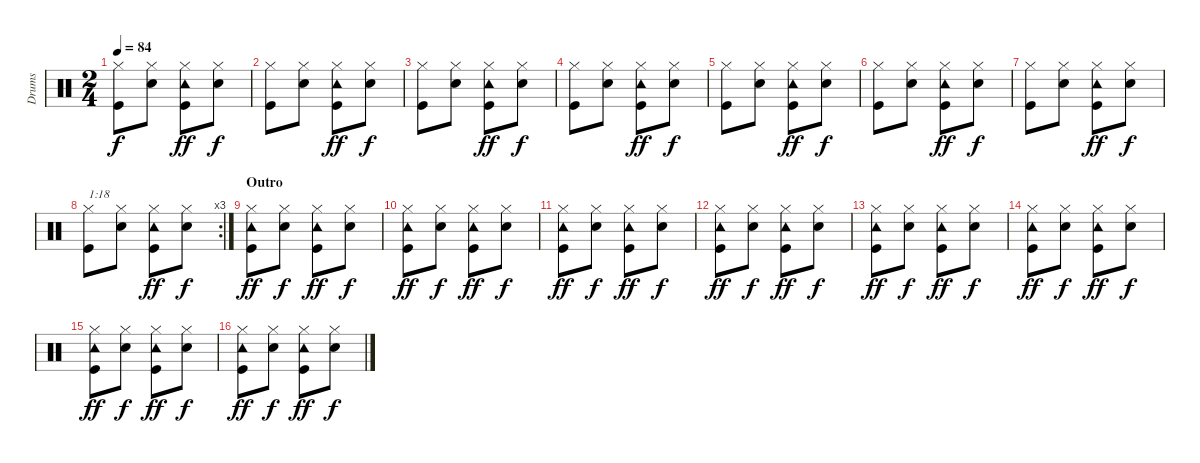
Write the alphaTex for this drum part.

\track ("Drums" "Drums") {instrument percussion}
\staff {score}
\articulation defaults
\ts (2 4)
\tempo 84
\clef neutral
\ks c
("Hi-Hat (closed)" "Kick (hit)").8{dy f} ("Hi-Hat (closed)" "Electric Snare (hit)").8 ("Tambourine (hit)" "Hi-Hat (closed)" "Kick (hit)").8{dy ff} ("Hi-Hat (closed)" "Electric Snare (hit)").8{dy f} |
("Hi-Hat (closed)" "Kick (hit)").8 ("Hi-Hat (closed)" "Electric Snare (hit)").8 ("Tambourine (hit)" "Hi-Hat (closed)" "Kick (hit)").8{dy ff} ("Hi-Hat (closed)" "Electric Snare (hit)").8{dy f} |
("Hi-Hat (closed)" "Kick (hit)").8 ("Hi-Hat (closed)" "Electric Snare (hit)").8 ("Tambourine (hit)" "Hi-Hat (closed)" "Kick (hit)").8{dy ff} ("Hi-Hat (closed)" "Electric Snare (hit)").8{dy f} |
("Hi-Hat (closed)" "Kick (hit)").8 ("Hi-Hat (closed)" "Electric Snare (hit)").8 ("Tambourine (hit)" "Hi-Hat (closed)" "Kick (hit)").8{dy ff} ("Hi-Hat (closed)" "Electric Snare (hit)").8{dy f} |
("Hi-Hat (closed)" "Kick (hit)").8 ("Hi-Hat (closed)" "Electric Snare (hit)").8 ("Tambourine (hit)" "Hi-Hat (closed)" "Kick (hit)").8{dy ff} ("Hi-Hat (closed)" "Electric Snare (hit)").8{dy f} |
("Hi-Hat (closed)" "Kick (hit)").8 ("Hi-Hat (closed)" "Electric Snare (hit)").8 ("Tambourine (hit)" "Hi-Hat (closed)" "Kick (hit)").8{dy ff} ("Hi-Hat (closed)" "Electric Snare (hit)").8{dy f} |
("Hi-Hat (closed)" "Kick (hit)").8 ("Hi-Hat (closed)" "Electric Snare (hit)").8 ("Tambourine (hit)" "Hi-Hat (closed)" "Kick (hit)").8{dy ff} ("Hi-Hat (closed)" "Electric Snare (hit)").8{dy f} |
\rc 3
("Hi-Hat (closed)" "Kick (hit)").8{txt "1:18"} ("Hi-Hat (closed)" "Electric Snare (hit)").8 ("Tambourine (hit)" "Hi-Hat (closed)" "Kick (hit)").8{dy ff} ("Hi-Hat (closed)" "Electric Snare (hit)").8{dy f} |
\section ("" "Outro")
("Tambourine (hit)" "Hi-Hat (closed)" "Kick (hit)").8{dy ff} ("Hi-Hat (closed)" "Electric Snare (hit)").8{dy f} ("Tambourine (hit)" "Hi-Hat (closed)" "Kick (hit)").8{dy ff} ("Hi-Hat (closed)" "Electric Snare (hit)").8{dy f} |
("Tambourine (hit)" "Hi-Hat (closed)" "Kick (hit)").8{dy ff} ("Hi-Hat (closed)" "Electric Snare (hit)").8{dy f} ("Tambourine (hit)" "Hi-Hat (closed)" "Kick (hit)").8{dy ff} ("Hi-Hat (closed)" "Electric Snare (hit)").8{dy f} |
("Tambourine (hit)" "Hi-Hat (closed)" "Kick (hit)").8{dy ff} ("Hi-Hat (closed)" "Electric Snare (hit)").8{dy f} ("Tambourine (hit)" "Hi-Hat (closed)" "Kick (hit)").8{dy ff} ("Hi-Hat (closed)" "Electric Snare (hit)").8{dy f} |
("Tambourine (hit)" "Hi-Hat (closed)" "Kick (hit)").8{dy ff} ("Hi-Hat (closed)" "Electric Snare (hit)").8{dy f} ("Tambourine (hit)" "Hi-Hat (closed)" "Kick (hit)").8{dy ff} ("Hi-Hat (closed)" "Electric Snare (hit)").8{dy f} |
("Tambourine (hit)" "Hi-Hat (closed)" "Kick (hit)").8{dy ff} ("Hi-Hat (closed)" "Electric Snare (hit)").8{dy f} ("Tambourine (hit)" "Hi-Hat (closed)" "Kick (hit)").8{dy ff} ("Hi-Hat (closed)" "Electric Snare (hit)").8{dy f} |
("Tambourine (hit)" "Hi-Hat (closed)" "Kick (hit)").8{dy ff} ("Hi-Hat (closed)" "Electric Snare (hit)").8{dy f} ("Tambourine (hit)" "Hi-Hat (closed)" "Kick (hit)").8{dy ff} ("Hi-Hat (closed)" "Electric Snare (hit)").8{dy f} |
("Tambourine (hit)" "Hi-Hat (closed)" "Kick (hit)").8{dy ff} ("Hi-Hat (closed)" "Electric Snare (hit)").8{dy f} ("Tambourine (hit)" "Hi-Hat (closed)" "Kick (hit)").8{dy ff} ("Hi-Hat (closed)" "Electric Snare (hit)").8{dy f} |
("Tambourine (hit)" "Hi-Hat (closed)" "Kick (hit)").8{dy ff} ("Hi-Hat (closed)" "Electric Snare (hit)").8{dy f} ("Tambourine (hit)" "Hi-Hat (closed)" "Kick (hit)").8{dy ff} ("Hi-Hat (closed)" "Electric Snare (hit)").8{dy f}
